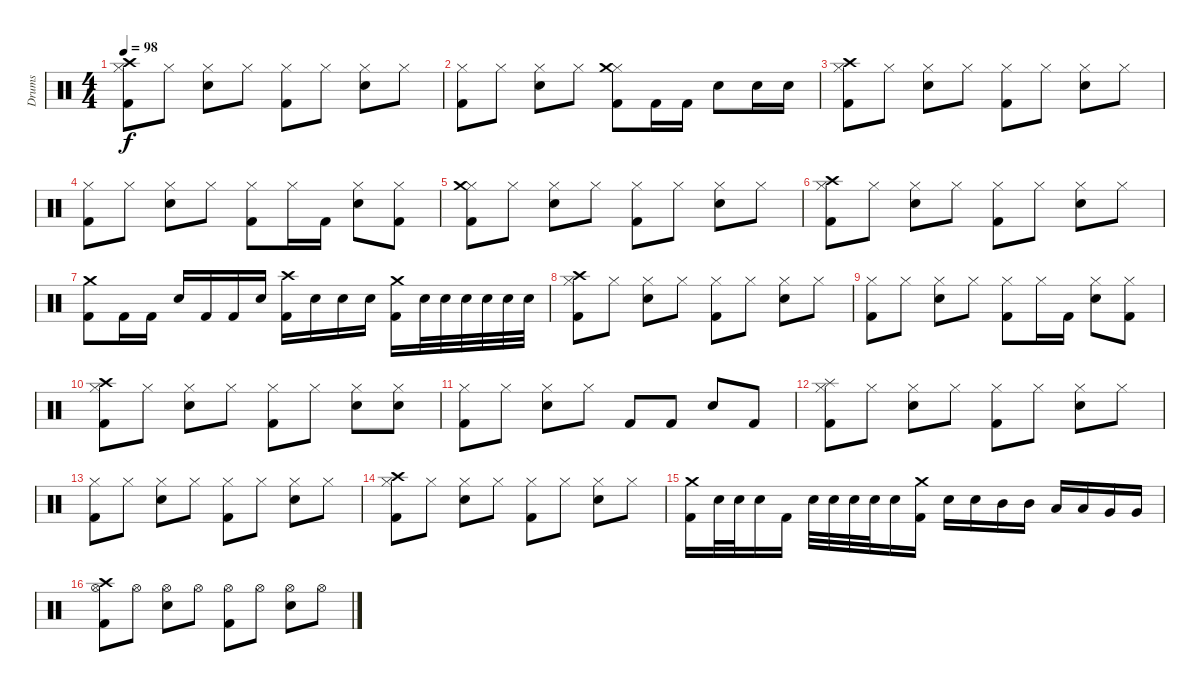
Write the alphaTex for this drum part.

\track ("Drums" "Drums") {instrument percussion}
\staff {score}
\articulation defaults
\ts (4 4)
\tempo 98
\clef neutral
\ks c
("Hi-Hat (closed)" "Kick (hit) 2" "Crash high (hit)").8{dy f} "Hi-Hat (closed)".8 ("Hi-Hat (closed)" "Snare (hit) 2").8 "Hi-Hat (closed)".8 ("Hi-Hat (closed)" "Kick (hit) 2").8 "Hi-Hat (closed)".8 ("Hi-Hat (closed)" "Snare (hit) 2").8 "Hi-Hat (closed)".8 |
("Hi-Hat (closed)" "Kick (hit) 2").8 "Hi-Hat (closed)".8 ("Hi-Hat (closed)" "Snare (hit) 2").8 "Hi-Hat (closed)".8 ("Hi-Hat (closed)" "Kick (hit) 2" "Crash medium (hit)").8 "Kick (hit) 2".16 "Kick (hit) 2".16 "Snare (hit) 2".8 "Snare (hit) 2".16 "Snare (hit) 2".16 |
("Hi-Hat (closed)" "Kick (hit) 2" "Crash high (hit)").8 "Hi-Hat (closed)".8 ("Hi-Hat (closed)" "Snare (hit) 2").8 "Hi-Hat (closed)".8 ("Hi-Hat (closed)" "Kick (hit) 2").8 "Hi-Hat (closed)".8 ("Hi-Hat (closed)" "Snare (hit) 2").8 "Hi-Hat (closed)".8 |
("Hi-Hat (closed)" "Kick (hit) 2").8 "Hi-Hat (closed)".8 ("Hi-Hat (closed)" "Snare (hit) 2").8 "Hi-Hat (closed)".8 ("Hi-Hat (closed)" "Kick (hit) 2").8 "Hi-Hat (closed)".16 "Kick (hit) 2".16 ("Hi-Hat (closed)" "Snare (hit) 2").8 ("Hi-Hat (closed)" "Kick (hit) 2").8 |
("Hi-Hat (closed)" "Kick (hit) 2" "Crash medium (hit)").8 "Hi-Hat (closed)".8 ("Hi-Hat (closed)" "Snare (hit) 2").8 "Hi-Hat (closed)".8 ("Hi-Hat (closed)" "Kick (hit) 2").8 "Hi-Hat (closed)".8 ("Hi-Hat (closed)" "Snare (hit) 2").8 "Hi-Hat (closed)".8 |
("Hi-Hat (closed)" "Kick (hit) 2" "Crash high (hit)").8 "Hi-Hat (closed)".8 ("Hi-Hat (closed)" "Snare (hit) 2").8 "Hi-Hat (closed)".8 ("Hi-Hat (closed)" "Kick (hit) 2").8 "Hi-Hat (closed)".8 ("Hi-Hat (closed)" "Snare (hit) 2").8 "Hi-Hat (closed)".8 |
("Kick (hit) 2" "Crash medium (hit)").8 "Kick (hit) 2".16 "Kick (hit) 2".16 "Snare (hit) 2".16 "Kick (hit) 2".16 "Kick (hit) 2".16 "Snare (hit) 2".16 ("Kick (hit) 2" "Crash high (hit)").16 "Snare (hit) 2".16 "Snare (hit) 2".16 "Snare (hit) 2".16 ("Kick (hit) 2" "Crash medium (hit)").16 "Snare (hit) 2".32 "Snare (hit) 2".32 "Snare (hit) 2".32 "Snare (hit) 2".32 "Snare (hit) 2".32 "Snare (hit) 2".32 |
("Hi-Hat (closed)" "Kick (hit) 2" "Crash high (hit)").8 "Hi-Hat (closed)".8 ("Hi-Hat (closed)" "Snare (hit) 2").8 "Hi-Hat (closed)".8 ("Hi-Hat (closed)" "Kick (hit) 2").8 "Hi-Hat (closed)".8 ("Hi-Hat (closed)" "Snare (hit) 2").8 "Hi-Hat (closed)".8 |
("Hi-Hat (closed)" "Kick (hit) 2").8 "Hi-Hat (closed)".8 ("Hi-Hat (closed)" "Snare (hit) 2").8 "Hi-Hat (closed)".8 ("Hi-Hat (closed)" "Kick (hit) 2").8 "Hi-Hat (closed)".16 "Kick (hit) 2".16 ("Hi-Hat (closed)" "Snare (hit) 2").8 ("Hi-Hat (closed)" "Kick (hit) 2").8 |
("Hi-Hat (closed)" "Kick (hit) 2" "Crash high (hit)").8 "Hi-Hat (closed)".8 ("Hi-Hat (closed)" "Snare (hit) 2").8 "Hi-Hat (closed)".8 ("Hi-Hat (closed)" "Kick (hit) 2").8 "Hi-Hat (closed)".8 ("Hi-Hat (closed)" "Snare (hit) 2").8 ("Hi-Hat (closed)" "Snare (hit) 2").8 |
("Hi-Hat (closed)" "Kick (hit) 2").8 "Hi-Hat (closed)".8 ("Hi-Hat (closed)" "Snare (hit) 2").8 "Hi-Hat (closed)".8 "Kick (hit) 2".8 "Kick (hit) 2".8 "Snare (hit) 2".8 "Kick (hit) 2".8 |
("Hi-Hat (closed)" "Kick (hit) 2" "Splash (hit)").8 "Hi-Hat (closed)".8 ("Hi-Hat (closed)" "Snare (hit) 2").8 "Hi-Hat (closed)".8 ("Hi-Hat (closed)" "Kick (hit) 2").8 "Hi-Hat (closed)".8 ("Hi-Hat (closed)" "Snare (hit) 2").8 "Hi-Hat (closed)".8 |
("Hi-Hat (closed)" "Kick (hit) 2").8 "Hi-Hat (closed)".8 ("Hi-Hat (closed)" "Snare (hit) 2").8 "Hi-Hat (closed)".8 ("Hi-Hat (closed)" "Kick (hit) 2").8 "Hi-Hat (closed)".8 ("Hi-Hat (closed)" "Snare (hit) 2").8 "Hi-Hat (closed)".8 |
("Hi-Hat (closed)" "Kick (hit) 2" "Crash high (hit)").8 "Hi-Hat (closed)".8 ("Hi-Hat (closed)" "Snare (hit) 2").8 "Hi-Hat (closed)".8 ("Hi-Hat (closed)" "Kick (hit) 2").8 "Hi-Hat (closed)".8 ("Hi-Hat (closed)" "Snare (hit) 2").8 "Hi-Hat (closed)".8 |
("Kick (hit) 2" "Crash medium (hit)").16 "Snare (hit) 2".32 "Snare (hit) 2".32 "Snare (hit) 2".16 "Kick (hit) 2".16 "Snare (hit) 2".32 "Snare (hit) 2".32 "Snare (hit) 2".32 "Snare (hit) 2".32 "Snare (hit) 2".16 ("Kick (hit) 2" "Crash medium (hit)").16 "Snare (hit) 2".16 "Snare (hit) 2".16 "Mid Tom (hit)".16 "Mid Tom (hit)".16 "Low Tom (hit)".16 "Low Tom (hit)".16 "Very Low Tom (hit)".16 "Very Low Tom (hit)".16 |
("Hi-Hat (open)" "Kick (hit) 2" "Crash high (hit)").8 "Hi-Hat (open)".8 ("Hi-Hat (open)" "Snare (hit) 2").8 "Hi-Hat (open)".8 ("Hi-Hat (open)" "Kick (hit) 2").8 "Hi-Hat (open)".8 ("Hi-Hat (open)" "Snare (hit) 2").8 "Hi-Hat (open)".8
